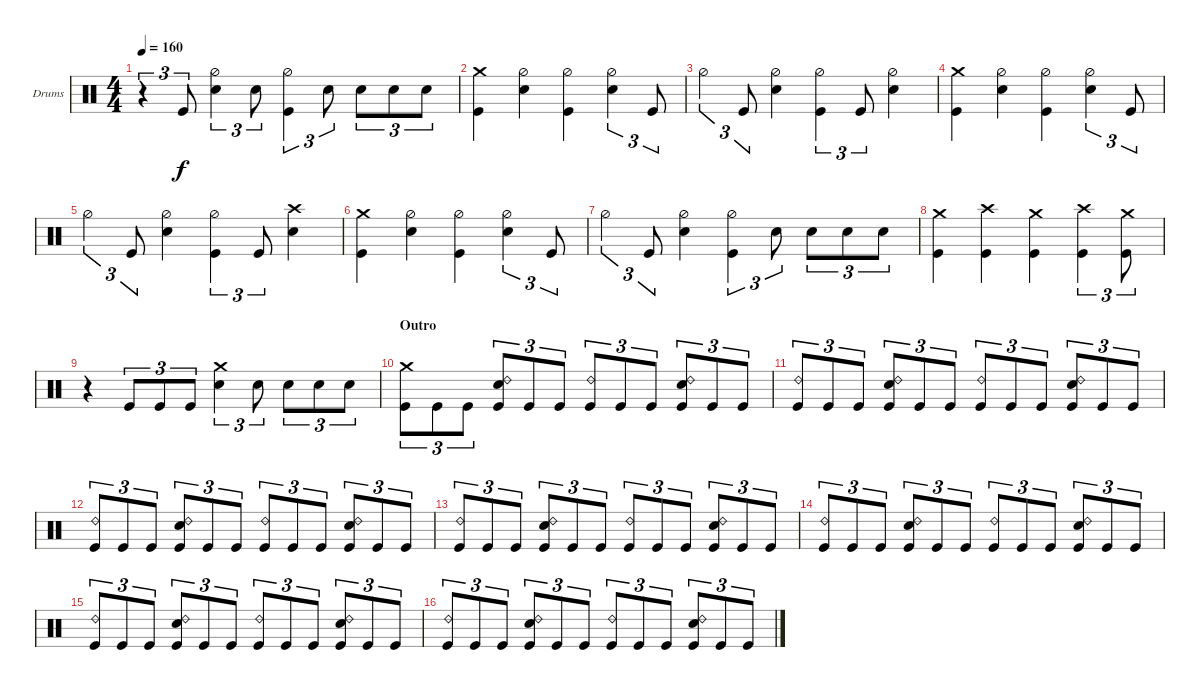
\bracketExtendMode groupsimilarinstruments
\firstSystemTrackNameOrientation horizontal
\otherSystemsTrackNameOrientation horizontal
\track ("Drumkit" "Drums") {instrument percussion}
\staff {score}
\articulation defaults
\ts (4 4)
\tempo 160
\clef neutral
\ks c
r.4{tu (3 2) dy f} "Kick (hit)".8{tu (3 2)} ("Snare (hit) 2" "Hi-Hat (half)").4{tu (3 2)} "Snare (hit) 2".8{tu (3 2)} ("Kick (hit)" "Hi-Hat (half)").4{tu (3 2)} "Snare (hit) 2".8{tu (3 2)} "Snare (hit) 2".8{tu (3 2)} "Snare (hit) 2".8{tu (3 2)} "Snare (hit) 2".8{tu (3 2)} |
("Kick (hit)" "Crash medium (hit)").4 ("Snare (hit) 2" "Hi-Hat (half)").4 ("Kick (hit)" "Hi-Hat (half)").4 ("Snare (hit) 2" "Hi-Hat (half)").4{tu (3 2)} "Kick (hit)".8{tu (3 2)} |
"Hi-Hat (half)".4{tu (3 2)} "Kick (hit)".8{tu (3 2)} ("Snare (hit) 2" "Hi-Hat (half)").4 ("Kick (hit)" "Hi-Hat (half)").4{tu (3 2)} "Kick (hit)".8{tu (3 2)} ("Snare (hit) 2" "Hi-Hat (half)").4 |
("Kick (hit)" "Crash medium (hit)").4 ("Snare (hit) 2" "Hi-Hat (half)").4 ("Kick (hit)" "Hi-Hat (half)").4 ("Snare (hit) 2" "Hi-Hat (half)").4{tu (3 2)} "Kick (hit)".8{tu (3 2)} |
"Hi-Hat (half)".4{tu (3 2)} "Kick (hit)".8{tu (3 2)} ("Snare (hit) 2" "Hi-Hat (half)").4 ("Kick (hit)" "Hi-Hat (half)").4{tu (3 2)} "Kick (hit)".8{tu (3 2)} ("Snare (hit) 2" "Crash high (hit)").4 |
("Kick (hit)" "Crash medium (hit)").4 ("Snare (hit) 2" "Hi-Hat (half)").4 ("Kick (hit)" "Hi-Hat (half)").4 ("Snare (hit) 2" "Hi-Hat (half)").4{tu (3 2)} "Kick (hit)".8{tu (3 2)} |
"Hi-Hat (half)".4{tu (3 2)} "Kick (hit)".8{tu (3 2)} ("Snare (hit) 2" "Hi-Hat (half)").4 ("Kick (hit)" "Hi-Hat (half)").4{tu (3 2)} "Snare (hit) 2".8{tu (3 2)} "Snare (hit) 2".8{tu (3 2)} "Snare (hit) 2".8{tu (3 2)} "Snare (hit) 2".8{tu (3 2)} |
("Kick (hit)" "Crash medium (hit)").4 ("Kick (hit)" "Crash high (hit)").4 ("Kick (hit)" "Crash medium (hit)").4 ("Kick (hit)" "Crash high (hit)").4{tu (3 2)} ("Kick (hit)" "Crash medium (hit)").8{tu (3 2)} |
r.4 "Kick (hit)".8{tu (3 2)} "Kick (hit)".8{tu (3 2)} "Kick (hit)".8{tu (3 2)} ("Snare (hit) 2" "Crash medium (hit)").4{tu (3 2)} "Snare (hit) 2".8{tu (3 2)} "Snare (hit) 2".8{tu (3 2)} "Snare (hit) 2".8{tu (3 2)} "Snare (hit) 2".8{tu (3 2)} |
\section ("" "Outro")
("Crash medium (hit)" "Kick (hit)").8{tu (3 2)} "Kick (hit)".8{tu (3 2)} "Kick (hit)".8{tu (3 2)} ("Ride (bell) 2" "Kick (hit)" "Snare (hit) 2").8{tu (3 2)} "Kick (hit)".8{tu (3 2)} "Kick (hit)".8{tu (3 2)} ("Ride (bell) 2" "Kick (hit)").8{tu (3 2)} "Kick (hit)".8{tu (3 2)} "Kick (hit)".8{tu (3 2)} ("Ride (bell) 2" "Kick (hit)" "Snare (hit) 2").8{tu (3 2)} "Kick (hit)".8{tu (3 2)} "Kick (hit)".8{tu (3 2)} |
("Ride (bell) 2" "Kick (hit)").8{tu (3 2)} "Kick (hit)".8{tu (3 2)} "Kick (hit)".8{tu (3 2)} ("Ride (bell) 2" "Kick (hit)" "Snare (hit) 2").8{tu (3 2)} "Kick (hit)".8{tu (3 2)} "Kick (hit)".8{tu (3 2)} ("Ride (bell) 2" "Kick (hit)").8{tu (3 2)} "Kick (hit)".8{tu (3 2)} "Kick (hit)".8{tu (3 2)} ("Ride (bell) 2" "Kick (hit)" "Snare (hit) 2").8{tu (3 2)} "Kick (hit)".8{tu (3 2)} "Kick (hit)".8{tu (3 2)} |
("Ride (bell) 2" "Kick (hit)").8{tu (3 2)} "Kick (hit)".8{tu (3 2)} "Kick (hit)".8{tu (3 2)} ("Ride (bell) 2" "Kick (hit)" "Snare (hit) 2").8{tu (3 2)} "Kick (hit)".8{tu (3 2)} "Kick (hit)".8{tu (3 2)} ("Ride (bell) 2" "Kick (hit)").8{tu (3 2)} "Kick (hit)".8{tu (3 2)} "Kick (hit)".8{tu (3 2)} ("Ride (bell) 2" "Kick (hit)" "Snare (hit) 2").8{tu (3 2)} "Kick (hit)".8{tu (3 2)} "Kick (hit)".8{tu (3 2)} |
("Ride (bell) 2" "Kick (hit)").8{tu (3 2)} "Kick (hit)".8{tu (3 2)} "Kick (hit)".8{tu (3 2)} ("Ride (bell) 2" "Kick (hit)" "Snare (hit) 2").8{tu (3 2)} "Kick (hit)".8{tu (3 2)} "Kick (hit)".8{tu (3 2)} ("Ride (bell) 2" "Kick (hit)").8{tu (3 2)} "Kick (hit)".8{tu (3 2)} "Kick (hit)".8{tu (3 2)} ("Ride (bell) 2" "Kick (hit)" "Snare (hit) 2").8{tu (3 2)} "Kick (hit)".8{tu (3 2)} "Kick (hit)".8{tu (3 2)} |
("Ride (bell) 2" "Kick (hit)").8{tu (3 2)} "Kick (hit)".8{tu (3 2)} "Kick (hit)".8{tu (3 2)} ("Ride (bell) 2" "Kick (hit)" "Snare (hit) 2").8{tu (3 2)} "Kick (hit)".8{tu (3 2)} "Kick (hit)".8{tu (3 2)} ("Ride (bell) 2" "Kick (hit)").8{tu (3 2)} "Kick (hit)".8{tu (3 2)} "Kick (hit)".8{tu (3 2)} ("Ride (bell) 2" "Kick (hit)" "Snare (hit) 2").8{tu (3 2)} "Kick (hit)".8{tu (3 2)} "Kick (hit)".8{tu (3 2)} |
("Ride (bell) 2" "Kick (hit)").8{tu (3 2)} "Kick (hit)".8{tu (3 2)} "Kick (hit)".8{tu (3 2)} ("Ride (bell) 2" "Kick (hit)" "Snare (hit) 2").8{tu (3 2)} "Kick (hit)".8{tu (3 2)} "Kick (hit)".8{tu (3 2)} ("Ride (bell) 2" "Kick (hit)").8{tu (3 2)} "Kick (hit)".8{tu (3 2)} "Kick (hit)".8{tu (3 2)} ("Ride (bell) 2" "Kick (hit)" "Snare (hit) 2").8{tu (3 2)} "Kick (hit)".8{tu (3 2)} "Kick (hit)".8{tu (3 2)} |
("Ride (bell) 2" "Kick (hit)").8{tu (3 2)} "Kick (hit)".8{tu (3 2)} "Kick (hit)".8{tu (3 2)} ("Ride (bell) 2" "Kick (hit)" "Snare (hit) 2").8{tu (3 2)} "Kick (hit)".8{tu (3 2)} "Kick (hit)".8{tu (3 2)} ("Ride (bell) 2" "Kick (hit)").8{tu (3 2)} "Kick (hit)".8{tu (3 2)} "Kick (hit)".8{tu (3 2)} ("Ride (bell) 2" "Kick (hit)" "Snare (hit) 2").8{tu (3 2)} "Kick (hit)".8{tu (3 2)} "Kick (hit)".8{tu (3 2)}
